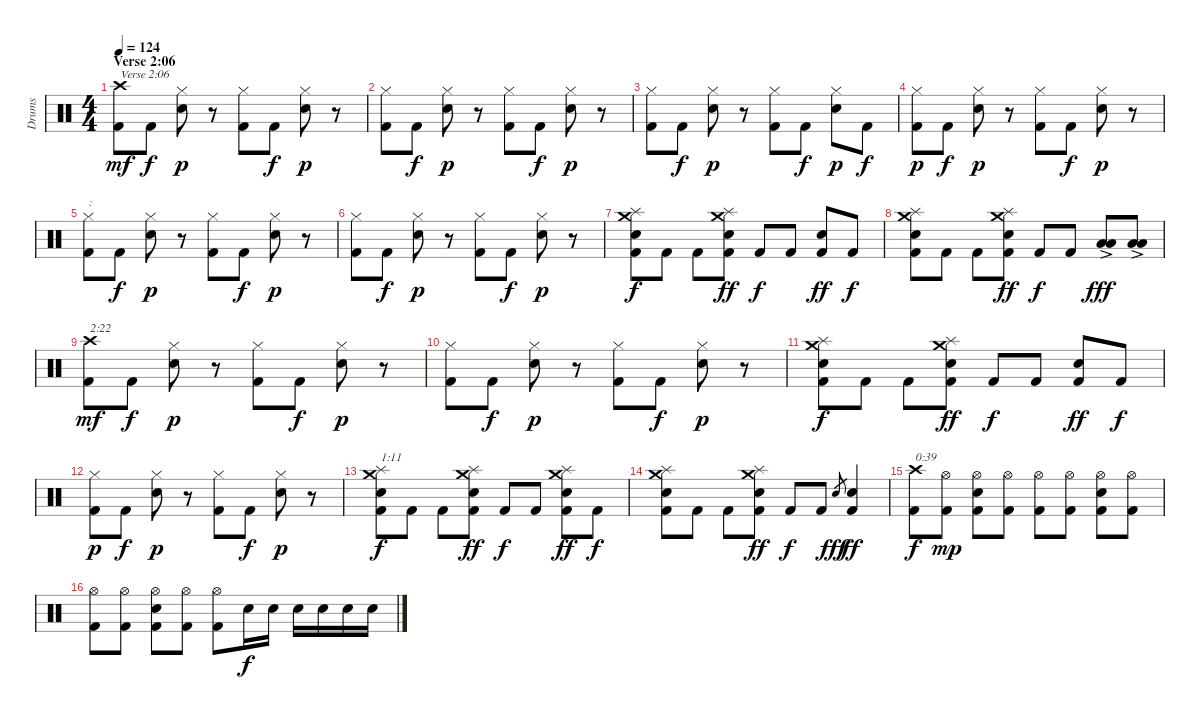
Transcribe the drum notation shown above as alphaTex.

\track ("Drums" "Drums") {instrument percussion}
\staff {score}
\articulation defaults
\ts (4 4)
\section ("" "Verse 2:06")
\tempo 124
\clef neutral
\ks c
("Kick (hit) 2" "Crash high (hit)").8{txt "Verse 2:06" dy mf} "Kick (hit) 2".8{dy f} ("Electric Snare (hit)" "Hi-Hat (closed)").8{dy p} r.8 ("Kick (hit) 2" "Hi-Hat (closed)").8 "Kick (hit) 2".8{dy f} ("Electric Snare (hit)" "Hi-Hat (closed)").8{dy p} r.8 |
("Kick (hit) 2" "Hi-Hat (closed)").8 "Kick (hit) 2".8{dy f} ("Electric Snare (hit)" "Hi-Hat (closed)").8{dy p} r.8 ("Kick (hit) 2" "Hi-Hat (closed)").8 "Kick (hit) 2".8{dy f} ("Electric Snare (hit)" "Hi-Hat (closed)").8{dy p} r.8 |
("Kick (hit) 2" "Hi-Hat (closed)").8 "Kick (hit) 2".8{dy f} ("Electric Snare (hit)" "Hi-Hat (closed)").8{dy p} r.8 ("Kick (hit) 2" "Hi-Hat (closed)").8 "Kick (hit) 2".8{dy f} ("Electric Snare (hit)" "Hi-Hat (closed)").8{dy p} "Kick (hit) 2".8{dy f} |
("Kick (hit) 2" "Hi-Hat (closed)").8{dy p} "Kick (hit) 2".8{dy f} ("Electric Snare (hit)" "Hi-Hat (closed)").8{dy p} r.8 ("Kick (hit) 2" "Hi-Hat (closed)").8 "Kick (hit) 2".8{dy f} ("Electric Snare (hit)" "Hi-Hat (closed)").8{dy p} r.8 |
("Kick (hit) 2" "Hi-Hat (closed)").8{txt ":"} "Kick (hit) 2".8{dy f} ("Electric Snare (hit)" "Hi-Hat (closed)").8{dy p} r.8 ("Kick (hit) 2" "Hi-Hat (closed)").8 "Kick (hit) 2".8{dy f} ("Electric Snare (hit)" "Hi-Hat (closed)").8{dy p} r.8 |
("Kick (hit) 2" "Hi-Hat (closed)").8 "Kick (hit) 2".8{dy f} ("Electric Snare (hit)" "Hi-Hat (closed)").8{dy p} r.8 ("Kick (hit) 2" "Hi-Hat (closed)").8 "Kick (hit) 2".8{dy f} ("Electric Snare (hit)" "Hi-Hat (closed)").8{dy p} r.8 |
("Kick (hit) 2" "Electric Snare (hit)" "Splash (hit)" "Crash medium (hit)").8{dy f} "Kick (hit) 2".8 "Kick (hit) 2".8 ("Kick (hit) 2" "Electric Snare (hit)" "Splash (hit)" "Crash medium (hit)").8{dy ff} "Kick (hit) 2".8{dy f} "Kick (hit) 2".8 ("Kick (hit) 2" "Electric Snare (hit)").8{dy ff} "Kick (hit) 2".8{dy f} |
("Kick (hit) 2" "Electric Snare (hit)" "Splash (hit)" "Crash medium (hit)").8 "Kick (hit) 2".8 "Kick (hit) 2".8 ("Kick (hit) 2" "Electric Snare (hit)" "Splash (hit)" "Crash medium (hit)").8{dy ff} "Kick (hit) 2".8{dy f} "Kick (hit) 2".8 ("Low Tom (hit)"{ac} "Low Floor Tom (hit)"{ac}).8{dy fff} ("Low Tom (hit)"{ac} "Low Floor Tom (hit)"{ac}).8 |
("Kick (hit) 2" "Crash high (hit)").8{txt "2:22" dy mf} "Kick (hit) 2".8{dy f} ("Electric Snare (hit)" "Hi-Hat (closed)").8{dy p} r.8 ("Kick (hit) 2" "Hi-Hat (closed)").8 "Kick (hit) 2".8{dy f} ("Electric Snare (hit)" "Hi-Hat (closed)").8{dy p} r.8 |
("Kick (hit) 2" "Hi-Hat (closed)").8 "Kick (hit) 2".8{dy f} ("Electric Snare (hit)" "Hi-Hat (closed)").8{dy p} r.8 ("Kick (hit) 2" "Hi-Hat (closed)").8 "Kick (hit) 2".8{dy f} ("Electric Snare (hit)" "Hi-Hat (closed)").8{dy p} r.8 |
("Kick (hit) 2" "Electric Snare (hit)" "Splash (hit)" "Crash medium (hit)").8{dy f} "Kick (hit) 2".8 "Kick (hit) 2".8 ("Kick (hit) 2" "Electric Snare (hit)" "Splash (hit)" "Crash medium (hit)").8{dy ff} "Kick (hit) 2".8{dy f} "Kick (hit) 2".8 ("Kick (hit) 2" "Electric Snare (hit)").8{dy ff} "Kick (hit) 2".8{dy f} |
("Kick (hit) 2" "Hi-Hat (closed)").8{dy p} "Kick (hit) 2".8{dy f} ("Electric Snare (hit)" "Hi-Hat (closed)").8{dy p} r.8 ("Kick (hit) 2" "Hi-Hat (closed)").8 "Kick (hit) 2".8{dy f} ("Electric Snare (hit)" "Hi-Hat (closed)").8{dy p} r.8 |
("Kick (hit) 2" "Electric Snare (hit)" "Splash (hit)" "Crash medium (hit)").8{txt "1:11" dy f} "Kick (hit) 2".8 "Kick (hit) 2".8 ("Kick (hit) 2" "Electric Snare (hit)" "Splash (hit)" "Crash medium (hit)").8{dy ff} "Kick (hit) 2".8{dy f} "Kick (hit) 2".8 ("Kick (hit) 2" "Electric Snare (hit)" "Splash (hit)" "Crash medium (hit)").8{dy ff} "Kick (hit) 2".8{dy f} |
("Kick (hit) 2" "Electric Snare (hit)" "Splash (hit)" "Crash medium (hit)").8 "Kick (hit) 2".8 "Kick (hit) 2".8 ("Kick (hit) 2" "Electric Snare (hit)" "Splash (hit)" "Crash medium (hit)").8{dy ff} "Kick (hit) 2".8{dy f} "Kick (hit) 2".8 "Electric Snare (hit)".8{gr dy fff} ("Kick (hit) 2" "Electric Snare (hit)").4{dy ff} |
("Kick (hit) 2" "Crash high (hit)").8{txt "0:39" dy f} ("Kick (hit) 2" "Hi-Hat (open)").8{dy mp} ("Kick (hit) 2" "Electric Snare (hit)" "Hi-Hat (open)").8 ("Kick (hit) 2" "Hi-Hat (open)").8 ("Kick (hit) 2" "Hi-Hat (open)").8 ("Kick (hit) 2" "Hi-Hat (open)").8 ("Kick (hit) 2" "Electric Snare (hit)" "Hi-Hat (open)").8 ("Kick (hit) 2" "Hi-Hat (open)").8 |
("Kick (hit) 2" "Hi-Hat (open)").8 ("Kick (hit) 2" "Hi-Hat (open)").8 ("Kick (hit) 2" "Electric Snare (hit)" "Hi-Hat (open)").8 ("Kick (hit) 2" "Hi-Hat (open)").8 ("Kick (hit) 2" "Hi-Hat (open)").8 "Electric Snare (hit)".16{dy f} "Electric Snare (hit)".16 "Electric Snare (hit)".16 "Electric Snare (hit)".16 "Electric Snare (hit)".16 "Electric Snare (hit)".16
